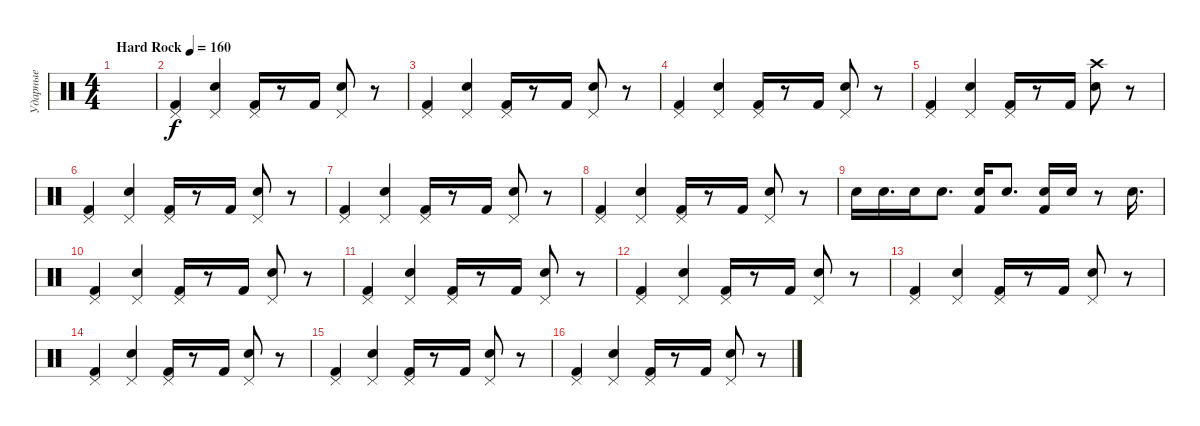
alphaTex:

\track ("Ударные" "Ударные") {instrument percussion}
\staff {score}
\articulation defaults
\ts (4 4)
\tempo (160 "Hard Rock")
\clef neutral
\ks c
|
("Pedal Hi-Hat (hit)" "Kick (hit) 2").4 ("Pedal Hi-Hat (hit)" "Snare (hit) 2").4 ("Pedal Hi-Hat (hit)" "Kick (hit) 2").16 r.8 "Kick (hit) 2".16 ("Pedal Hi-Hat (hit)" "Snare (hit) 2").8 r.8 |
("Pedal Hi-Hat (hit)" "Kick (hit) 2").4 ("Pedal Hi-Hat (hit)" "Snare (hit) 2").4 ("Pedal Hi-Hat (hit)" "Kick (hit) 2").16 r.8 "Kick (hit) 2".16 ("Pedal Hi-Hat (hit)" "Snare (hit) 2").8 r.8 |
("Pedal Hi-Hat (hit)" "Kick (hit) 2").4 ("Pedal Hi-Hat (hit)" "Snare (hit) 2").4 ("Pedal Hi-Hat (hit)" "Kick (hit) 2").16 r.8 "Kick (hit) 2".16 ("Pedal Hi-Hat (hit)" "Snare (hit) 2").8 r.8 |
("Pedal Hi-Hat (hit)" "Kick (hit) 2").4 ("Pedal Hi-Hat (hit)" "Snare (hit) 2").4 ("Pedal Hi-Hat (hit)" "Kick (hit) 2").16 r.8 "Kick (hit) 2".16 ("Crash high (hit)" "Snare (hit) 2").8 r.8 |
("Pedal Hi-Hat (hit)" "Kick (hit) 2").4 ("Pedal Hi-Hat (hit)" "Snare (hit) 2").4 ("Pedal Hi-Hat (hit)" "Kick (hit) 2").16 r.8 "Kick (hit) 2".16 ("Pedal Hi-Hat (hit)" "Snare (hit) 2").8 r.8 |
("Pedal Hi-Hat (hit)" "Kick (hit) 2").4 ("Pedal Hi-Hat (hit)" "Snare (hit) 2").4 ("Pedal Hi-Hat (hit)" "Kick (hit) 2").16 r.8 "Kick (hit) 2".16 ("Pedal Hi-Hat (hit)" "Snare (hit) 2").8 r.8 |
("Pedal Hi-Hat (hit)" "Kick (hit) 2").4 ("Pedal Hi-Hat (hit)" "Snare (hit) 2").4 ("Pedal Hi-Hat (hit)" "Kick (hit) 2").16 r.8 "Kick (hit) 2".16 ("Pedal Hi-Hat (hit)" "Snare (hit) 2").8 r.8 |
"Snare (hit) 2".16 "Snare (hit) 2".16{d} "Snare (hit) 2".16 "Snare (hit) 2".8{d} ("Snare (hit) 2" "Kick (hit) 2").16 "Snare (hit) 2".8{d} ("Snare (hit) 2" "Kick (hit) 2").16 "Snare (hit) 2".16 r.8 "Snare (hit) 2".16{d} |
("Pedal Hi-Hat (hit)" "Kick (hit) 2").4 ("Pedal Hi-Hat (hit)" "Snare (hit) 2").4 ("Pedal Hi-Hat (hit)" "Kick (hit) 2").16 r.8 "Kick (hit) 2".16 ("Pedal Hi-Hat (hit)" "Snare (hit) 2").8 r.8 |
("Pedal Hi-Hat (hit)" "Kick (hit) 2").4 ("Pedal Hi-Hat (hit)" "Snare (hit) 2").4 ("Pedal Hi-Hat (hit)" "Kick (hit) 2").16 r.8 "Kick (hit) 2".16 ("Pedal Hi-Hat (hit)" "Snare (hit) 2").8 r.8 |
("Pedal Hi-Hat (hit)" "Kick (hit) 2").4 ("Pedal Hi-Hat (hit)" "Snare (hit) 2").4 ("Pedal Hi-Hat (hit)" "Kick (hit) 2").16 r.8 "Kick (hit) 2".16 ("Pedal Hi-Hat (hit)" "Snare (hit) 2").8 r.8 |
("Pedal Hi-Hat (hit)" "Kick (hit) 2").4 ("Pedal Hi-Hat (hit)" "Snare (hit) 2").4 ("Pedal Hi-Hat (hit)" "Kick (hit) 2").16 r.8 "Kick (hit) 2".16 ("Pedal Hi-Hat (hit)" "Snare (hit) 2").8 r.8 |
("Pedal Hi-Hat (hit)" "Kick (hit) 2").4 ("Pedal Hi-Hat (hit)" "Snare (hit) 2").4 ("Pedal Hi-Hat (hit)" "Kick (hit) 2").16 r.8 "Kick (hit) 2".16 ("Pedal Hi-Hat (hit)" "Snare (hit) 2").8 r.8 |
("Pedal Hi-Hat (hit)" "Kick (hit) 2").4 ("Pedal Hi-Hat (hit)" "Snare (hit) 2").4 ("Pedal Hi-Hat (hit)" "Kick (hit) 2").16 r.8 "Kick (hit) 2".16 ("Pedal Hi-Hat (hit)" "Snare (hit) 2").8 r.8 |
("Pedal Hi-Hat (hit)" "Kick (hit) 2").4 ("Pedal Hi-Hat (hit)" "Snare (hit) 2").4 ("Pedal Hi-Hat (hit)" "Kick (hit) 2").16 r.8 "Kick (hit) 2".16 ("Pedal Hi-Hat (hit)" "Snare (hit) 2").8 r.8
